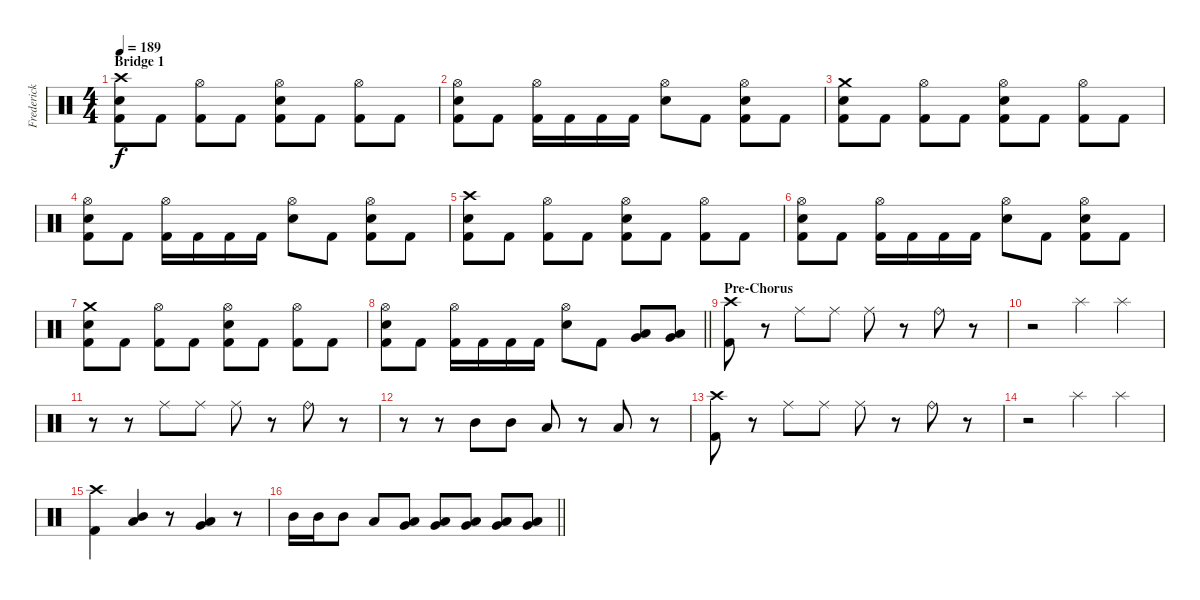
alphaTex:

\track ("Frederick Ehmke" "Frederick ") {instrument percussion}
\staff {score}
\articulation defaults
\ts (4 4)
\section ("" "Bridge 1")
\tempo 189
\clef neutral
\ks c
("Electric Snare (hit)" "Kick (hit) 2" "Crash high (hit)").8{dy f} "Kick (hit) 2".8 ("Kick (hit) 2" "Hi-Hat (open)").8 "Kick (hit) 2".8 ("Electric Snare (hit)" "Kick (hit) 2" "Hi-Hat (open)").8 "Kick (hit) 2".8 ("Kick (hit) 2" "Hi-Hat (open)").8 "Kick (hit) 2".8 |
("Electric Snare (hit)" "Kick (hit) 2" "Hi-Hat (open)").8 "Kick (hit) 2".8 ("Kick (hit) 2" "Hi-Hat (open)").16 "Kick (hit) 2".16 "Kick (hit) 2".16 "Kick (hit) 2".16 ("Electric Snare (hit)" "Hi-Hat (open)").8 "Kick (hit) 2".8 ("Electric Snare (hit)" "Kick (hit) 2" "Hi-Hat (open)").8 "Kick (hit) 2".8 |
("Electric Snare (hit)" "Kick (hit) 2" "Crash medium (hit)").8 "Kick (hit) 2".8 ("Kick (hit) 2" "Hi-Hat (open)").8 "Kick (hit) 2".8 ("Electric Snare (hit)" "Kick (hit) 2" "Hi-Hat (open)").8 "Kick (hit) 2".8 ("Kick (hit) 2" "Hi-Hat (open)").8 "Kick (hit) 2".8 |
("Electric Snare (hit)" "Kick (hit) 2" "Hi-Hat (open)").8 "Kick (hit) 2".8 ("Kick (hit) 2" "Hi-Hat (open)").16 "Kick (hit) 2".16 "Kick (hit) 2".16 "Kick (hit) 2".16 ("Electric Snare (hit)" "Hi-Hat (open)").8 "Kick (hit) 2".8 ("Electric Snare (hit)" "Kick (hit) 2" "Hi-Hat (open)").8 "Kick (hit) 2".8 |
("Electric Snare (hit)" "Kick (hit) 2" "Crash high (hit)").8 "Kick (hit) 2".8 ("Kick (hit) 2" "Hi-Hat (open)").8 "Kick (hit) 2".8 ("Electric Snare (hit)" "Kick (hit) 2" "Hi-Hat (open)").8 "Kick (hit) 2".8 ("Kick (hit) 2" "Hi-Hat (open)").8 "Kick (hit) 2".8 |
("Electric Snare (hit)" "Kick (hit) 2" "Hi-Hat (open)").8 "Kick (hit) 2".8 ("Kick (hit) 2" "Hi-Hat (open)").16 "Kick (hit) 2".16 "Kick (hit) 2".16 "Kick (hit) 2".16 ("Electric Snare (hit)" "Hi-Hat (open)").8 "Kick (hit) 2".8 ("Electric Snare (hit)" "Kick (hit) 2" "Hi-Hat (open)").8 "Kick (hit) 2".8 |
("Electric Snare (hit)" "Kick (hit) 2" "Crash medium (hit)").8 "Kick (hit) 2".8 ("Kick (hit) 2" "Hi-Hat (open)").8 "Kick (hit) 2".8 ("Electric Snare (hit)" "Kick (hit) 2" "Hi-Hat (open)").8 "Kick (hit) 2".8 ("Kick (hit) 2" "Hi-Hat (open)").8 "Kick (hit) 2".8 |
\barLineRight lightlight
("Electric Snare (hit)" "Kick (hit) 2" "Hi-Hat (open)").8 "Kick (hit) 2".8 ("Kick (hit) 2" "Hi-Hat (open)").16 "Kick (hit) 2".16 "Kick (hit) 2".16 "Kick (hit) 2".16 ("Electric Snare (hit)" "Hi-Hat (open)").8 "Kick (hit) 2".8 ("Low Tom (hit)" "Very Low Tom (hit)").8 ("Low Tom (hit)" "Very Low Tom (hit)").8 |
\section ("" "Pre-Chorus")
("Kick (hit) 2" "Crash high (hit)").8 r.8 "Ride (middle)".8 "Ride (middle)".8 "Ride (middle)".8 r.8 "Ride (bell)".8 r.8 |
r.2 "Splash (hit)".4 "Splash (hit)".4 |
r.8 r.8 "Ride (middle)".8 "Ride (middle)".8 "Ride (middle)".8 r.8 "Ride (bell)".8 r.8 |
r.8 r.8 "Mid Tom (hit)".8 "Mid Tom (hit)".8 "Low Tom (hit)".8 r.8 "Low Tom (hit)".8 r.8 |
("Kick (hit) 2" "Crash high (hit)").8 r.8 "Ride (middle)".8 "Ride (middle)".8 "Ride (middle)".8 r.8 "Ride (bell)".8 r.8 |
r.2 "Splash (hit)".4 "Splash (hit)".4 |
("Kick (hit) 2" "Crash high (hit)").4 ("Low Tom (hit)" "Mid Tom (hit)").4 r.8 ("Low Tom (hit)" "Very Low Tom (hit)").4 r.8 |
\barLineRight lightlight "Mid Tom (hit)".16 "Mid Tom (hit)".16 "Mid Tom (hit)".8 "Low Tom (hit)".8
("Low Tom (hit)" "Very Low Tom (hit)").8 ("Low Tom (hit)" "Very Low Tom (hit)").8 ("Very Low Tom (hit)" "Low Floor Tom (hit)").8 ("Very Low Tom (hit)" "Low Floor Tom (hit)").8 ("Very Low Tom (hit)" "Low Floor Tom (hit)").8
